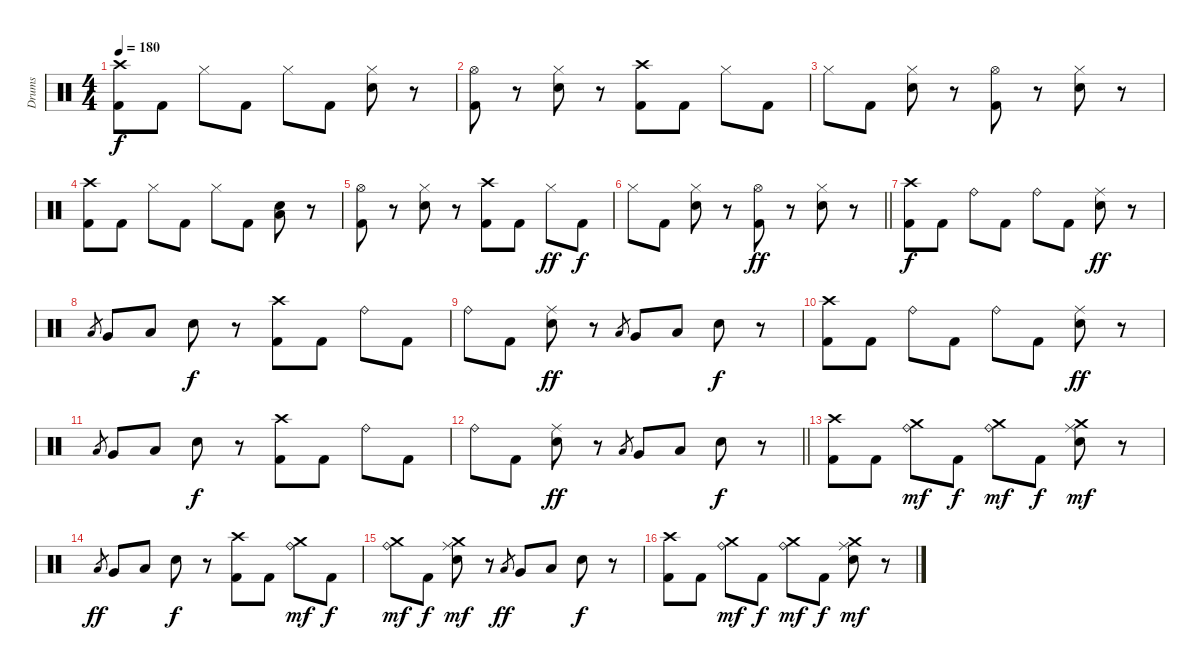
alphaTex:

\track ("Drums" "Drums") {instrument percussion}
\staff {score}
\articulation defaults
\ts (4 4)
\section ("" "")
\tempo 180
\clef neutral
\ks c
("Crash high (hit)" "Kick (hit) 2").8{dy f} "Kick (hit) 2".8 "Hi-Hat (closed)".8 "Kick (hit) 2".8 "Hi-Hat (closed)".8 "Kick (hit) 2".8 ("Electric Snare (hit)" "Hi-Hat (closed)").8 r.8 |
("Kick (hit) 2" "Hi-Hat (open)").8 r.8 ("Electric Snare (hit)" "Hi-Hat (closed)").8 r.8 ("Kick (hit) 2" "Crash high (hit)").8 "Kick (hit) 2".8 "Hi-Hat (closed)".8 "Kick (hit) 2".8 |
"Hi-Hat (closed)".8 "Kick (hit) 2".8 ("Electric Snare (hit)" "Hi-Hat (closed)").8 r.8 ("Kick (hit) 2" "Hi-Hat (open)").8 r.8 ("Electric Snare (hit)" "Hi-Hat (closed)").8 r.8 |
("Crash high (hit)" "Kick (hit) 2").8 "Kick (hit) 2".8 "Hi-Hat (closed)".8 "Kick (hit) 2".8 "Hi-Hat (closed)".8 "Kick (hit) 2".8 ("Electric Snare (hit)" "Low Tom (hit)").8 r.8 |
("Kick (hit) 2" "Hi-Hat (open)").8 r.8 ("Electric Snare (hit)" "Hi-Hat (closed)").8 r.8 ("Kick (hit) 2" "Crash high (hit)").8 "Kick (hit) 2".8 "Hi-Hat (closed)".8{dy ff} "Kick (hit) 2".8{dy f} |
\barLineRight lightlight "Hi-Hat (closed)".8 "Kick (hit) 2".8
("Electric Snare (hit)" "Hi-Hat (closed)").8 r.8 ("Kick (hit) 2" "Hi-Hat (open)").8{dy ff} r.8 ("Electric Snare (hit)" "Hi-Hat (closed)").8 r.8 |
("Crash high (hit)" "Kick (hit) 2").8{dy f} "Kick (hit) 2".8 "Ride (bell)".8 "Kick (hit) 2".8 "Ride (bell)".8 "Kick (hit) 2".8 ("Electric Snare (hit)" "Ride (middle)").8{dy ff} r.8 |
"Low Tom (hit)".8{gr} "Very Low Tom (hit)".8 "Low Floor Tom (hit)".8 "Electric Snare (hit)".8{dy f} r.8 ("Crash high (hit)" "Kick (hit) 2").8 "Kick (hit) 2".8 "Ride (bell)".8 "Kick (hit) 2".8 |
"Ride (bell)".8 "Kick (hit) 2".8 ("Electric Snare (hit)" "Ride (middle)").8{dy ff} r.8 "Low Tom (hit)".8{gr} "Very Low Tom (hit)".8 "Low Floor Tom (hit)".8 "Electric Snare (hit)".8{dy f} r.8 |
("Crash high (hit)" "Kick (hit) 2").8 "Kick (hit) 2".8 "Ride (bell)".8 "Kick (hit) 2".8 "Ride (bell)".8 "Kick (hit) 2".8 ("Electric Snare (hit)" "Ride (middle)").8{dy ff} r.8 |
"Low Tom (hit)".8{gr} "Very Low Tom (hit)".8 "Low Floor Tom (hit)".8 "Electric Snare (hit)".8{dy f} r.8 ("Crash high (hit)" "Kick (hit) 2").8 "Kick (hit) 2".8 "Ride (bell)".8 "Kick (hit) 2".8 |
\barLineRight lightlight "Ride (bell)".8 "Kick (hit) 2".8
("Electric Snare (hit)" "Ride (middle)").8{dy ff} r.8 "Low Tom (hit)".8{gr} "Very Low Tom (hit)".8 "Low Floor Tom (hit)".8 "Electric Snare (hit)".8{dy f} r.8 |
("Crash high (hit)" "Kick (hit) 2").8 "Kick (hit) 2".8 ("Ride (bell)" "Crash medium (hit)").8{dy mf} "Kick (hit) 2".8{dy f} ("Ride (bell)" "Crash medium (hit)").8{dy mf} "Kick (hit) 2".8{dy f} ("Electric Snare (hit)" "Ride (middle)" "Crash medium (hit)").8{dy mf} r.8 |
"Low Tom (hit)".8{gr dy ff} "Very Low Tom (hit)".8 "Low Floor Tom (hit)".8 "Electric Snare (hit)".8{dy f} r.8 ("Crash high (hit)" "Kick (hit) 2").8 "Kick (hit) 2".8 ("Ride (bell)" "Crash medium (hit)").8{dy mf} "Kick (hit) 2".8{dy f} |
("Ride (bell)" "Crash medium (hit)").8{dy mf} "Kick (hit) 2".8{dy f} ("Electric Snare (hit)" "Ride (middle)" "Crash medium (hit)").8{dy mf} r.8 "Low Tom (hit)".8{gr dy ff} "Very Low Tom (hit)".8 "Low Floor Tom (hit)".8 "Electric Snare (hit)".8{dy f} r.8 |
("Crash high (hit)" "Kick (hit) 2").8 "Kick (hit) 2".8 ("Ride (bell)" "Crash medium (hit)").8{dy mf} "Kick (hit) 2".8{dy f} ("Ride (bell)" "Crash medium (hit)").8{dy mf} "Kick (hit) 2".8{dy f} ("Electric Snare (hit)" "Ride (middle)" "Crash medium (hit)").8{dy mf} r.8
